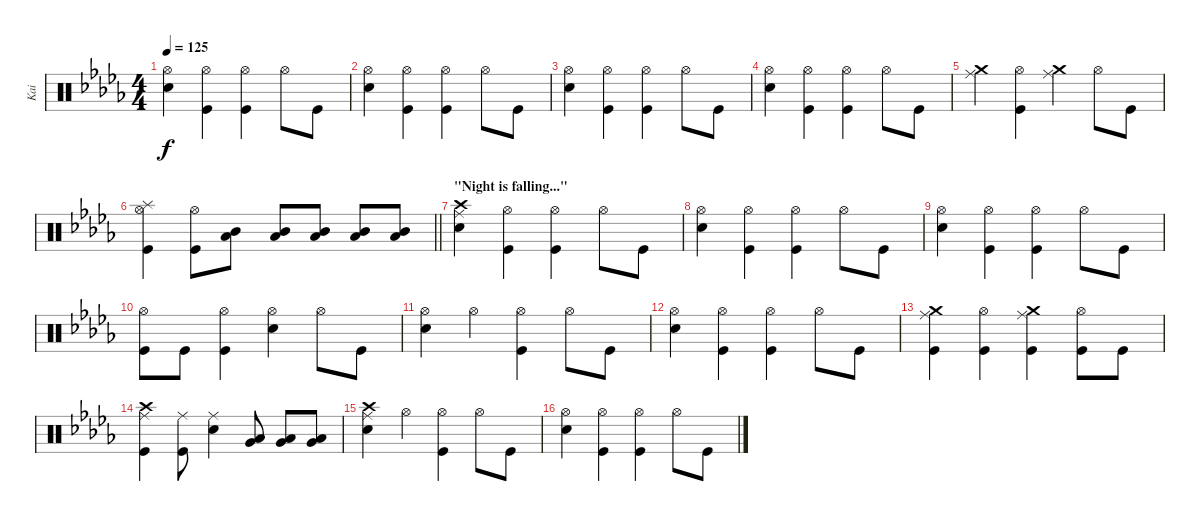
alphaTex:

\track ("Kai" "Kai") {instrument percussion}
\staff {score}
\articulation defaults
\ts (4 4)
\tempo 125
\clef neutral
\ks bbminor
("Snare (hit) 2" "Hi-Hat (open)").4{dy f} ("Kick (hit)" "Hi-Hat (open)").4 ("Hi-Hat (open)" "Kick (hit)").4 "Hi-Hat (open)".8 "Kick (hit)".8 |
("Snare (hit) 2" "Hi-Hat (open)").4 ("Kick (hit)" "Hi-Hat (open)").4 ("Hi-Hat (open)" "Kick (hit)").4 "Hi-Hat (open)".8 "Kick (hit)".8 |
("Snare (hit) 2" "Hi-Hat (open)").4 ("Kick (hit)" "Hi-Hat (open)").4 ("Hi-Hat (open)" "Kick (hit)").4 "Hi-Hat (open)".8 "Kick (hit)".8 |
("Snare (hit) 2" "Hi-Hat (open)").4 ("Kick (hit)" "Hi-Hat (open)").4 ("Hi-Hat (open)" "Kick (hit)").4 "Hi-Hat (open)".8 "Kick (hit)".8 |
("Crash medium (hit)" "Ride (middle)").4 ("Kick (hit)" "Hi-Hat (open)").4 ("Crash medium (hit)" "Ride (middle)").4 "Hi-Hat (open)".8 "Kick (hit)".8 |
\barLineRight lightlight
("Kick (hit)" "Hi-Hat (open)" "Splash (hit)").4 ("Kick (hit)" "Hi-Hat (open)").8 ("Mid Tom (hit)" "Low Tom (hit)").8 ("Low Tom (hit)" "Mid Tom (hit)").8 ("Low Tom (hit)" "Mid Tom (hit)").8 ("Low Tom (hit)" "Mid Tom (hit)").8 ("Low Tom (hit)" "Mid Tom (hit)").8 |
\section ("" "\"Night is falling...\"")
("Crash high (hit)" "Snare (hit) 2" "Ride (middle)").4 ("Kick (hit)" "Hi-Hat (open)").4 ("Hi-Hat (open)" "Kick (hit)").4 "Hi-Hat (open)".8 "Kick (hit)".8 |
("Snare (hit) 2" "Hi-Hat (open)").4 ("Kick (hit)" "Hi-Hat (open)").4 ("Hi-Hat (open)" "Kick (hit)").4 "Hi-Hat (open)".8 "Kick (hit)".8 |
("Snare (hit) 2" "Hi-Hat (open)").4 ("Kick (hit)" "Hi-Hat (open)").4 ("Hi-Hat (open)" "Kick (hit)").4 "Hi-Hat (open)".8 "Kick (hit)".8 |
("Kick (hit)" "Hi-Hat (open)").8 "Kick (hit)".8 ("Kick (hit)" "Hi-Hat (open)").4 ("Snare (hit) 2" "Hi-Hat (open)").4 "Hi-Hat (open)".8 "Kick (hit)".8 |
("Snare (hit) 2" "Hi-Hat (open)").4 "Hi-Hat (open)".4 ("Hi-Hat (open)" "Kick (hit)").4 "Hi-Hat (open)".8 "Kick (hit)".8 |
("Snare (hit) 2" "Hi-Hat (open)").4 ("Kick (hit)" "Hi-Hat (open)").4 ("Hi-Hat (open)" "Kick (hit)").4 "Hi-Hat (open)".8 "Kick (hit)".8 |
("Kick (hit)" "Ride (middle)" "Crash medium (hit)").4 ("Kick (hit)" "Hi-Hat (open)").4 ("Kick (hit)" "Crash medium (hit)" "Ride (middle)").4 ("Hi-Hat (open)" "Kick (hit)").8 "Kick (hit)".8 |
("Kick (hit)" "Crash high (hit)" "Ride (middle)").4 ("Kick (hit)" "Ride (middle)").8 ("Snare (hit) 2" "Ride (middle)").4 ("Very Low Tom (hit)" "Low Tom (hit)").8 ("Low Tom (hit)" "Very Low Tom (hit)").8 ("Low Tom (hit)" "Very Low Tom (hit)").8 |
("Crash high (hit)" "Snare (hit) 2" "Ride (middle)").4 "Hi-Hat (open)".4 ("Hi-Hat (open)" "Kick (hit)").4 "Hi-Hat (open)".8 "Kick (hit)".8 |
("Snare (hit) 2" "Hi-Hat (open)").4 ("Kick (hit)" "Hi-Hat (open)").4 ("Hi-Hat (open)" "Kick (hit)").4 "Hi-Hat (open)".8 "Kick (hit)".8
